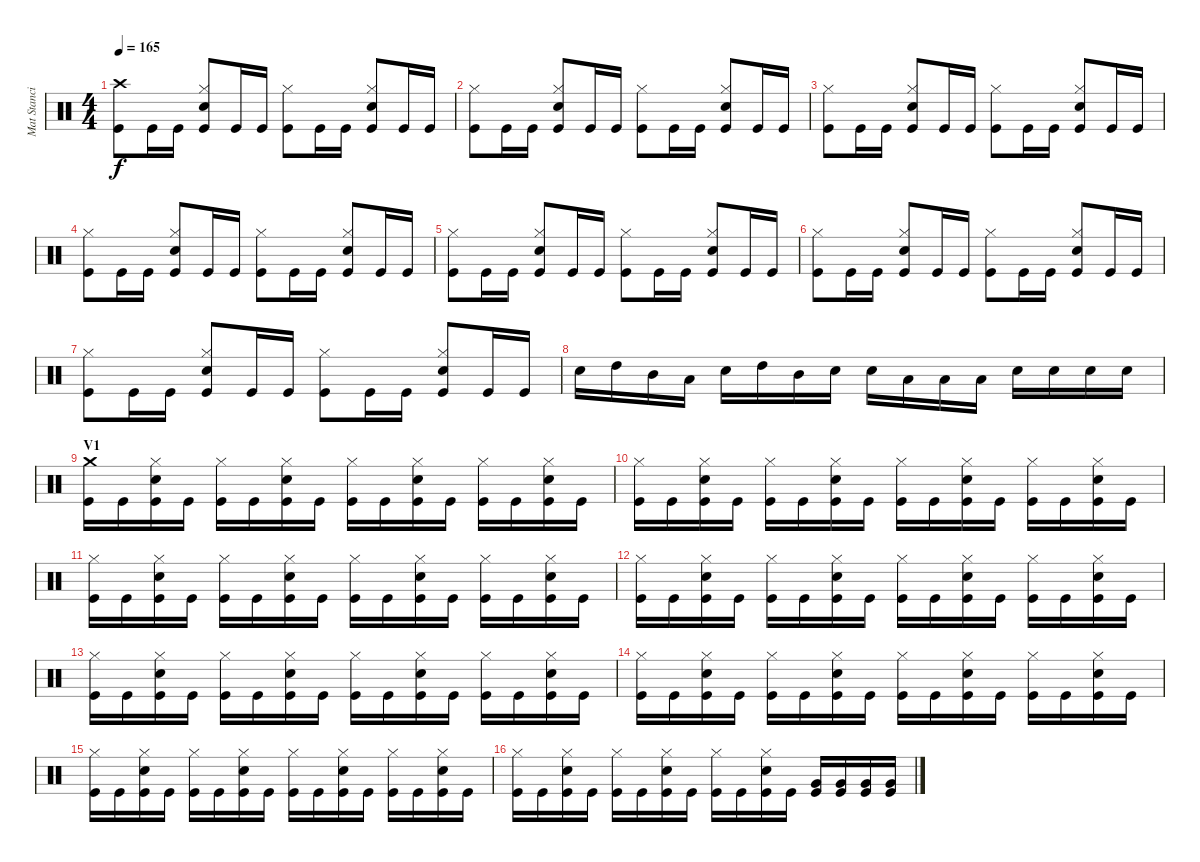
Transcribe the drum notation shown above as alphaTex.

\track ("Mat Stancioiu (Drums)" "Mat Stanci") {instrument percussion}
\staff {score}
\articulation defaults
\ts (4 4)
\tempo 165
\clef neutral
\ks c
("Crash high (hit)" "Kick (hit)").8{dy f} "Kick (hit)".16 "Kick (hit)".16 ("Hi-Hat (closed)" "Electric Snare (hit)" "Kick (hit)").8 "Kick (hit)".16 "Kick (hit)".16 ("Hi-Hat (closed)" "Kick (hit)").8 "Kick (hit)".16 "Kick (hit)".16 ("Hi-Hat (closed)" "Electric Snare (hit)" "Kick (hit)").8 "Kick (hit)".16 "Kick (hit)".16 |
("Hi-Hat (closed)" "Kick (hit)").8 "Kick (hit)".16 "Kick (hit)".16 ("Hi-Hat (closed)" "Electric Snare (hit)" "Kick (hit)").8 "Kick (hit)".16 "Kick (hit)".16 ("Hi-Hat (closed)" "Kick (hit)").8 "Kick (hit)".16 "Kick (hit)".16 ("Hi-Hat (closed)" "Electric Snare (hit)" "Kick (hit)").8 "Kick (hit)".16 "Kick (hit)".16 |
("Hi-Hat (closed)" "Kick (hit)").8 "Kick (hit)".16 "Kick (hit)".16 ("Hi-Hat (closed)" "Electric Snare (hit)" "Kick (hit)").8 "Kick (hit)".16 "Kick (hit)".16 ("Hi-Hat (closed)" "Kick (hit)").8 "Kick (hit)".16 "Kick (hit)".16 ("Hi-Hat (closed)" "Electric Snare (hit)" "Kick (hit)").8 "Kick (hit)".16 "Kick (hit)".16 |
("Hi-Hat (closed)" "Kick (hit)").8 "Kick (hit)".16 "Kick (hit)".16 ("Hi-Hat (closed)" "Electric Snare (hit)" "Kick (hit)").8 "Kick (hit)".16 "Kick (hit)".16 ("Hi-Hat (closed)" "Kick (hit)").8 "Kick (hit)".16 "Kick (hit)".16 ("Hi-Hat (closed)" "Electric Snare (hit)" "Kick (hit)").8 "Kick (hit)".16 "Kick (hit)".16 |
("Hi-Hat (closed)" "Kick (hit)").8 "Kick (hit)".16 "Kick (hit)".16 ("Hi-Hat (closed)" "Electric Snare (hit)" "Kick (hit)").8 "Kick (hit)".16 "Kick (hit)".16 ("Hi-Hat (closed)" "Kick (hit)").8 "Kick (hit)".16 "Kick (hit)".16 ("Hi-Hat (closed)" "Electric Snare (hit)" "Kick (hit)").8 "Kick (hit)".16 "Kick (hit)".16 |
("Hi-Hat (closed)" "Kick (hit)").8 "Kick (hit)".16 "Kick (hit)".16 ("Hi-Hat (closed)" "Electric Snare (hit)" "Kick (hit)").8 "Kick (hit)".16 "Kick (hit)".16 ("Hi-Hat (closed)" "Kick (hit)").8 "Kick (hit)".16 "Kick (hit)".16 ("Hi-Hat (closed)" "Electric Snare (hit)" "Kick (hit)").8 "Kick (hit)".16 "Kick (hit)".16 |
("Hi-Hat (closed)" "Kick (hit)").8 "Kick (hit)".16 "Kick (hit)".16 ("Hi-Hat (closed)" "Electric Snare (hit)" "Kick (hit)").8 "Kick (hit)".16 "Kick (hit)".16 ("Hi-Hat (closed)" "Kick (hit)").8 "Kick (hit)".16 "Kick (hit)".16 ("Hi-Hat (closed)" "Electric Snare (hit)" "Kick (hit)").8 "Kick (hit)".16 "Kick (hit)".16 |
"Electric Snare (hit)".16 "High Tom (hit)".16 "Mid Tom (hit)".16 "Low Tom (hit)".16 "Electric Snare (hit)".16 "High Tom (hit)".16 "Mid Tom (hit)".16 "Electric Snare (hit)".16 "Electric Snare (hit)".16 "Low Tom (hit)".16 "Low Tom (hit)".16 "Low Tom (hit)".16 "Electric Snare (hit)".16 "Electric Snare (hit)".16 "Electric Snare (hit)".16 "Electric Snare (hit)".16 |
\section ("" "V1")
("Crash medium (hit)" "Kick (hit)").16 "Kick (hit)".16 ("Hi-Hat (closed)" "Electric Snare (hit)" "Kick (hit)").16 "Kick (hit)".16 ("Hi-Hat (closed)" "Kick (hit)").16 "Kick (hit)".16 ("Hi-Hat (closed)" "Electric Snare (hit)" "Kick (hit)").16 "Kick (hit)".16 ("Hi-Hat (closed)" "Kick (hit)").16 "Kick (hit)".16 ("Hi-Hat (closed)" "Electric Snare (hit)" "Kick (hit)").16 "Kick (hit)".16 ("Hi-Hat (closed)" "Kick (hit)").16 "Kick (hit)".16 ("Hi-Hat (closed)" "Electric Snare (hit)" "Kick (hit)").16 "Kick (hit)".16 |
("Hi-Hat (closed)" "Kick (hit)").16 "Kick (hit)".16 ("Hi-Hat (closed)" "Electric Snare (hit)" "Kick (hit)").16 "Kick (hit)".16 ("Hi-Hat (closed)" "Kick (hit)").16 "Kick (hit)".16 ("Hi-Hat (closed)" "Electric Snare (hit)" "Kick (hit)").16 "Kick (hit)".16 ("Hi-Hat (closed)" "Kick (hit)").16 "Kick (hit)".16 ("Hi-Hat (closed)" "Electric Snare (hit)" "Kick (hit)").16 "Kick (hit)".16 ("Hi-Hat (closed)" "Kick (hit)").16 "Kick (hit)".16 ("Hi-Hat (closed)" "Electric Snare (hit)" "Kick (hit)").16 "Kick (hit)".16 |
("Hi-Hat (closed)" "Kick (hit)").16 "Kick (hit)".16 ("Hi-Hat (closed)" "Electric Snare (hit)" "Kick (hit)").16 "Kick (hit)".16 ("Hi-Hat (closed)" "Kick (hit)").16 "Kick (hit)".16 ("Hi-Hat (closed)" "Electric Snare (hit)" "Kick (hit)").16 "Kick (hit)".16 ("Hi-Hat (closed)" "Kick (hit)").16 "Kick (hit)".16 ("Hi-Hat (closed)" "Electric Snare (hit)" "Kick (hit)").16 "Kick (hit)".16 ("Hi-Hat (closed)" "Kick (hit)").16 "Kick (hit)".16 ("Hi-Hat (closed)" "Electric Snare (hit)" "Kick (hit)").16 "Kick (hit)".16 |
("Hi-Hat (closed)" "Kick (hit)").16 "Kick (hit)".16 ("Hi-Hat (closed)" "Electric Snare (hit)" "Kick (hit)").16 "Kick (hit)".16 ("Hi-Hat (closed)" "Kick (hit)").16 "Kick (hit)".16 ("Hi-Hat (closed)" "Electric Snare (hit)" "Kick (hit)").16 "Kick (hit)".16 ("Hi-Hat (closed)" "Kick (hit)").16 "Kick (hit)".16 ("Hi-Hat (closed)" "Electric Snare (hit)" "Kick (hit)").16 "Kick (hit)".16 ("Hi-Hat (closed)" "Kick (hit)").16 "Kick (hit)".16 ("Hi-Hat (closed)" "Electric Snare (hit)" "Kick (hit)").16 "Kick (hit)".16 |
("Hi-Hat (closed)" "Kick (hit)").16 "Kick (hit)".16 ("Hi-Hat (closed)" "Electric Snare (hit)" "Kick (hit)").16 "Kick (hit)".16 ("Hi-Hat (closed)" "Kick (hit)").16 "Kick (hit)".16 ("Hi-Hat (closed)" "Electric Snare (hit)" "Kick (hit)").16 "Kick (hit)".16 ("Hi-Hat (closed)" "Kick (hit)").16 "Kick (hit)".16 ("Hi-Hat (closed)" "Electric Snare (hit)" "Kick (hit)").16 "Kick (hit)".16 ("Hi-Hat (closed)" "Kick (hit)").16 "Kick (hit)".16 ("Hi-Hat (closed)" "Electric Snare (hit)" "Kick (hit)").16 "Kick (hit)".16 |
("Hi-Hat (closed)" "Kick (hit)").16 "Kick (hit)".16 ("Hi-Hat (closed)" "Electric Snare (hit)" "Kick (hit)").16 "Kick (hit)".16 ("Hi-Hat (closed)" "Kick (hit)").16 "Kick (hit)".16 ("Hi-Hat (closed)" "Electric Snare (hit)" "Kick (hit)").16 "Kick (hit)".16 ("Hi-Hat (closed)" "Kick (hit)").16 "Kick (hit)".16 ("Hi-Hat (closed)" "Electric Snare (hit)" "Kick (hit)").16 "Kick (hit)".16 ("Hi-Hat (closed)" "Kick (hit)").16 "Kick (hit)".16 ("Hi-Hat (closed)" "Electric Snare (hit)" "Kick (hit)").16 "Kick (hit)".16 |
("Hi-Hat (closed)" "Kick (hit)").16 "Kick (hit)".16 ("Hi-Hat (closed)" "Electric Snare (hit)" "Kick (hit)").16 "Kick (hit)".16 ("Hi-Hat (closed)" "Kick (hit)").16 "Kick (hit)".16 ("Hi-Hat (closed)" "Electric Snare (hit)" "Kick (hit)").16 "Kick (hit)".16 ("Hi-Hat (closed)" "Kick (hit)").16 "Kick (hit)".16 ("Hi-Hat (closed)" "Electric Snare (hit)" "Kick (hit)").16 "Kick (hit)".16 ("Hi-Hat (closed)" "Kick (hit)").16 "Kick (hit)".16 ("Hi-Hat (closed)" "Electric Snare (hit)" "Kick (hit)").16 "Kick (hit)".16 |
("Hi-Hat (closed)" "Kick (hit)").16 "Kick (hit)".16 ("Hi-Hat (closed)" "Electric Snare (hit)" "Kick (hit)").16 "Kick (hit)".16 ("Hi-Hat (closed)" "Kick (hit)").16 "Kick (hit)".16 ("Hi-Hat (closed)" "Electric Snare (hit)" "Kick (hit)").16 "Kick (hit)".16 ("Hi-Hat (closed)" "Kick (hit)").16 "Kick (hit)".16 ("Hi-Hat (closed)" "Electric Snare (hit)" "Kick (hit)").16 "Kick (hit)".16 ("Very Low Tom (hit)" "Kick (hit)").16 ("Very Low Tom (hit)" "Kick (hit)").16 ("Very Low Tom (hit)" "Kick (hit)").16 ("Very Low Tom (hit)" "Kick (hit)").16
